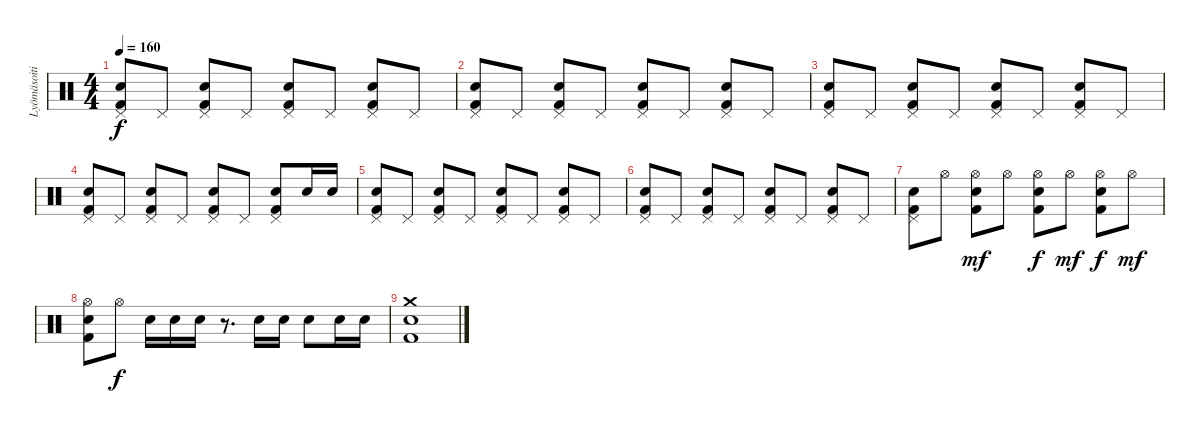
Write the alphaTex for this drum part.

\track ("Lyömäsoitin" "Lyömäsoiti") {instrument percussion}
\staff {score}
\articulation defaults
\ts (4 4)
\tempo 160
\clef neutral
\ks c
("Pedal Hi-Hat (hit)" "Electric Snare (hit)" "Kick (hit) 2").8{dy f} "Pedal Hi-Hat (hit)".8 ("Pedal Hi-Hat (hit)" "Electric Snare (hit)" "Kick (hit) 2").8 "Pedal Hi-Hat (hit)".8 ("Pedal Hi-Hat (hit)" "Electric Snare (hit)" "Kick (hit) 2").8 "Pedal Hi-Hat (hit)".8 ("Pedal Hi-Hat (hit)" "Electric Snare (hit)" "Kick (hit) 2").8 "Pedal Hi-Hat (hit)".8 |
("Pedal Hi-Hat (hit)" "Electric Snare (hit)" "Kick (hit) 2").8 "Pedal Hi-Hat (hit)".8 ("Pedal Hi-Hat (hit)" "Electric Snare (hit)" "Kick (hit) 2").8 "Pedal Hi-Hat (hit)".8 ("Pedal Hi-Hat (hit)" "Electric Snare (hit)" "Kick (hit) 2").8 "Pedal Hi-Hat (hit)".8 ("Pedal Hi-Hat (hit)" "Electric Snare (hit)" "Kick (hit) 2").8 "Pedal Hi-Hat (hit)".8 |
("Pedal Hi-Hat (hit)" "Electric Snare (hit)" "Kick (hit) 2").8 "Pedal Hi-Hat (hit)".8 ("Pedal Hi-Hat (hit)" "Electric Snare (hit)" "Kick (hit) 2").8 "Pedal Hi-Hat (hit)".8 ("Pedal Hi-Hat (hit)" "Electric Snare (hit)" "Kick (hit) 2").8 "Pedal Hi-Hat (hit)".8 ("Pedal Hi-Hat (hit)" "Electric Snare (hit)" "Kick (hit) 2").8 "Pedal Hi-Hat (hit)".8 |
("Pedal Hi-Hat (hit)" "Electric Snare (hit)" "Kick (hit) 2").8 "Pedal Hi-Hat (hit)".8 ("Pedal Hi-Hat (hit)" "Electric Snare (hit)" "Kick (hit) 2").8 "Pedal Hi-Hat (hit)".8 ("Pedal Hi-Hat (hit)" "Electric Snare (hit)" "Kick (hit) 2").8 "Pedal Hi-Hat (hit)".8 ("Pedal Hi-Hat (hit)" "Electric Snare (hit)" "Kick (hit) 2").8 "Electric Snare (hit)".16 "Electric Snare (hit)".16 |
("Pedal Hi-Hat (hit)" "Electric Snare (hit)" "Kick (hit) 2").8 "Pedal Hi-Hat (hit)".8 ("Pedal Hi-Hat (hit)" "Electric Snare (hit)" "Kick (hit) 2").8 "Pedal Hi-Hat (hit)".8 ("Pedal Hi-Hat (hit)" "Electric Snare (hit)" "Kick (hit) 2").8 "Pedal Hi-Hat (hit)".8 ("Pedal Hi-Hat (hit)" "Electric Snare (hit)" "Kick (hit) 2").8 "Pedal Hi-Hat (hit)".8 |
("Pedal Hi-Hat (hit)" "Electric Snare (hit)" "Kick (hit) 2").8 "Pedal Hi-Hat (hit)".8 ("Pedal Hi-Hat (hit)" "Electric Snare (hit)" "Kick (hit) 2").8 "Pedal Hi-Hat (hit)".8 ("Pedal Hi-Hat (hit)" "Electric Snare (hit)" "Kick (hit) 2").8 "Pedal Hi-Hat (hit)".8 ("Pedal Hi-Hat (hit)" "Electric Snare (hit)" "Kick (hit) 2").8 "Pedal Hi-Hat (hit)".8 |
("Pedal Hi-Hat (hit)" "Electric Snare (hit)" "Kick (hit) 2").8 "Hi-Hat (open)".8 ("Hi-Hat (open)" "Electric Snare (hit)" "Kick (hit) 2").8{dy mf} "Hi-Hat (open)".8 ("Hi-Hat (open)" "Electric Snare (hit)" "Kick (hit) 2").8{dy f} "Hi-Hat (open)".8{dy mf} ("Hi-Hat (open)" "Electric Snare (hit)" "Kick (hit) 2").8{dy f} "Hi-Hat (open)".8{dy mf} |
("Hi-Hat (open)" "Electric Snare (hit)" "Kick (hit) 2").8 "Hi-Hat (open)".8{dy f} "Electric Snare (hit)".16 "Electric Snare (hit)".16 "Electric Snare (hit)".16 r.8{d} "Electric Snare (hit)".16 "Electric Snare (hit)".16 "Electric Snare (hit)".8 "Electric Snare (hit)".16 "Electric Snare (hit)".16 |
("Crash medium (hit)" "Electric Snare (hit)" "Kick (hit) 2").1
